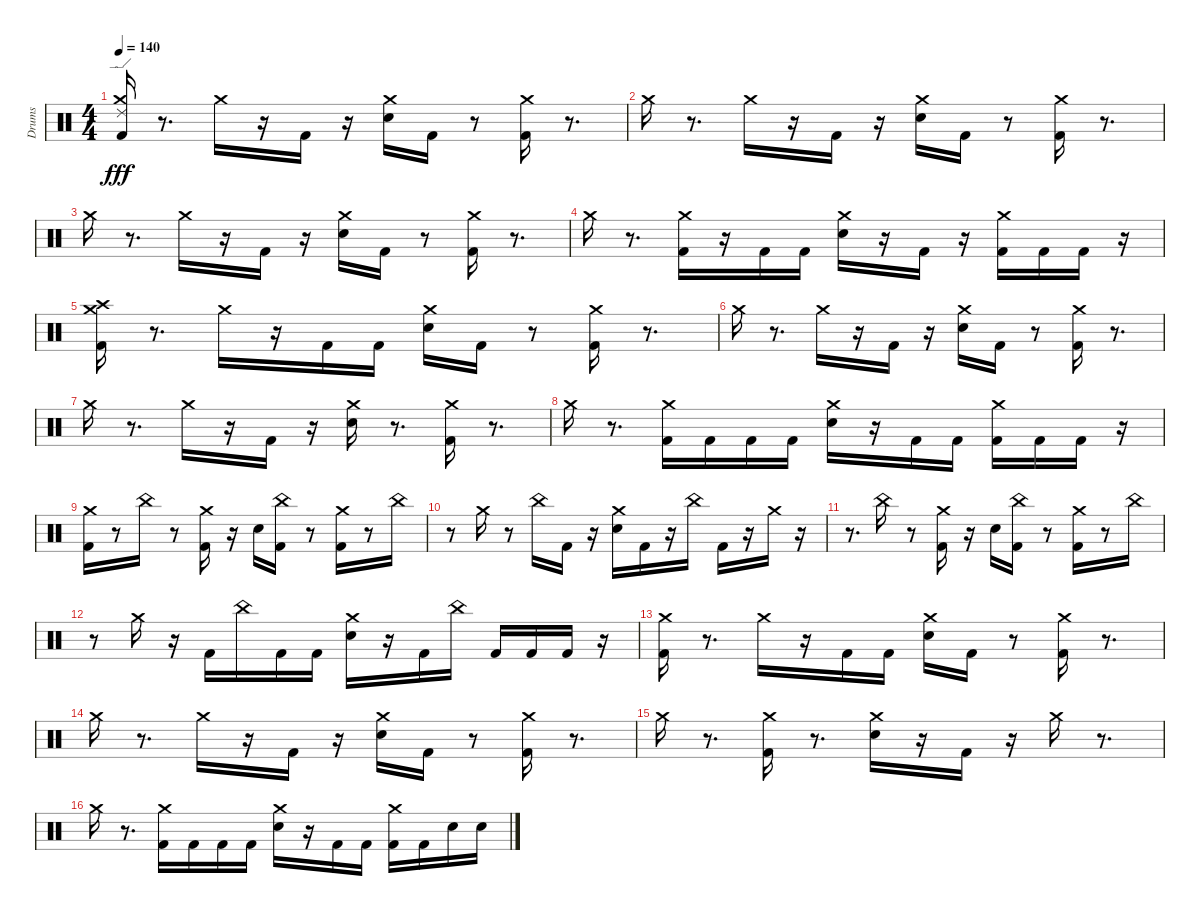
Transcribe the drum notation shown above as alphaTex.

\track ("Drums" "Drums") {instrument percussion}
\staff {score}
\articulation defaults
\ts (4 4)
\tempo 140
\clef neutral
\ks c
("Ride (edge) 2" "Crash medium (hit)" "Kick (hit) 2").16{dy fff} r.8{d} "Crash medium (hit)".16 r.16 "Kick (hit) 2".16 r.16 ("Crash medium (hit)" "Snare (hit) 2").16 "Kick (hit) 2".16 r.8 ("Crash medium (hit)" "Kick (hit) 2").16 r.8{d} |
"Crash medium (hit)".16 r.8{d} "Crash medium (hit)".16 r.16 "Kick (hit) 2".16 r.16 ("Crash medium (hit)" "Snare (hit) 2").16 "Kick (hit) 2".16 r.8 ("Crash medium (hit)" "Kick (hit) 2").16 r.8{d} |
"Crash medium (hit)".16 r.8{d} "Crash medium (hit)".16 r.16 "Kick (hit) 2".16 r.16 ("Crash medium (hit)" "Snare (hit) 2").16 "Kick (hit) 2".16 r.8 ("Crash medium (hit)" "Kick (hit) 2").16 r.8{d} |
"Crash medium (hit)".16 r.8{d} ("Crash medium (hit)" "Kick (hit) 2").16 r.16 "Kick (hit) 2".16 "Kick (hit) 2".16 ("Crash medium (hit)" "Snare (hit) 2").16 r.16 "Kick (hit) 2".16 r.16 ("Crash medium (hit)" "Kick (hit) 2").16 "Kick (hit) 2".16 "Kick (hit) 2".16 r.16 |
("Crash high (hit)" "Crash medium (hit)" "Kick (hit) 2").16 r.8{d} "Crash medium (hit)".16 r.16 "Kick (hit) 2".16 "Kick (hit) 2".16 ("Crash medium (hit)" "Snare (hit) 2").16 "Kick (hit) 2".16 r.8 ("Crash medium (hit)" "Kick (hit) 2").16 r.8{d} |
"Crash medium (hit)".16 r.8{d} "Crash medium (hit)".16 r.16 "Kick (hit) 2".16 r.16 ("Crash medium (hit)" "Snare (hit) 2").16 "Kick (hit) 2".16 r.8 ("Crash medium (hit)" "Kick (hit) 2").16 r.8{d} |
"Crash medium (hit)".16 r.8{d} "Crash medium (hit)".16 r.16 "Kick (hit) 2".16 r.16 ("Crash medium (hit)" "Snare (hit) 2").16 r.8{d} ("Crash medium (hit)" "Kick (hit) 2").16 r.8{d} |
"Crash medium (hit)".16 r.8{d} ("Crash medium (hit)" "Kick (hit) 2").16 "Kick (hit) 2".16 "Kick (hit) 2".16 "Kick (hit) 2".16 ("Crash medium (hit)" "Snare (hit) 2").16 r.16 "Kick (hit) 2".16 "Kick (hit) 2".16 ("Crash medium (hit)" "Kick (hit) 2").16 "Kick (hit) 2".16 "Kick (hit) 2".16 r.16 |
("Crash medium (hit)" "Kick (hit) 2").16 r.8 "China (hit)".16 r.8 ("Crash medium (hit)" "Kick (hit) 2").16 r.16 "Snare (hit) 2".16 ("Kick (hit) 2" "China (hit)").16 r.8 ("Crash medium (hit)" "Kick (hit) 2").16 r.8 "China (hit)".16 |
r.8 "Crash medium (hit)".16 r.8 "China (hit)".16 "Kick (hit) 2".16 r.16 ("Crash medium (hit)" "Snare (hit) 2").16 "Kick (hit) 2".16 r.16 "China (hit)".16 "Kick (hit) 2".16 r.16 "Crash medium (hit)".16 r.16 |
r.8{d} "China (hit)".16 r.8 ("Crash medium (hit)" "Kick (hit) 2").16 r.16 "Snare (hit) 2".16 ("Kick (hit) 2" "China (hit)").16 r.8 ("Crash medium (hit)" "Kick (hit) 2").16 r.8 "China (hit)".16 |
r.8 "Crash medium (hit)".16 r.16 "Kick (hit) 2".16 "China (hit)".16 "Kick (hit) 2".16 "Kick (hit) 2".16 ("Crash medium (hit)" "Snare (hit) 2").16 r.16 "Kick (hit) 2".16 "China (hit)".16 "Kick (hit) 2".16 "Kick (hit) 2".16 "Kick (hit) 2".16 r.16 |
("Crash medium (hit)" "Kick (hit) 2").16 r.8{d} "Crash medium (hit)".16 r.16 "Kick (hit) 2".16 "Kick (hit) 2".16 ("Crash medium (hit)" "Snare (hit) 2").16 "Kick (hit) 2".16 r.8 ("Crash medium (hit)" "Kick (hit) 2").16 r.8{d} |
"Crash medium (hit)".16 r.8{d} "Crash medium (hit)".16 r.16 "Kick (hit) 2".16 r.16 ("Crash medium (hit)" "Snare (hit) 2").16 "Kick (hit) 2".16 r.8 ("Crash medium (hit)" "Kick (hit) 2").16 r.8{d} |
"Crash medium (hit)".16 r.8{d} ("Crash medium (hit)" "Kick (hit) 2").16 r.8{d} ("Crash medium (hit)" "Snare (hit) 2").16 r.16 "Kick (hit) 2".16 r.16 "Crash medium (hit)".16 r.8{d} |
"Crash medium (hit)".16 r.8{d} ("Crash medium (hit)" "Kick (hit) 2").16 "Kick (hit) 2".16 "Kick (hit) 2".16 "Kick (hit) 2".16 ("Crash medium (hit)" "Snare (hit) 2").16 r.16 "Kick (hit) 2".16 "Kick (hit) 2".16 ("Crash medium (hit)" "Kick (hit) 2").16 "Kick (hit) 2".16 "Snare (hit) 2".16 "Snare (hit) 2".16
